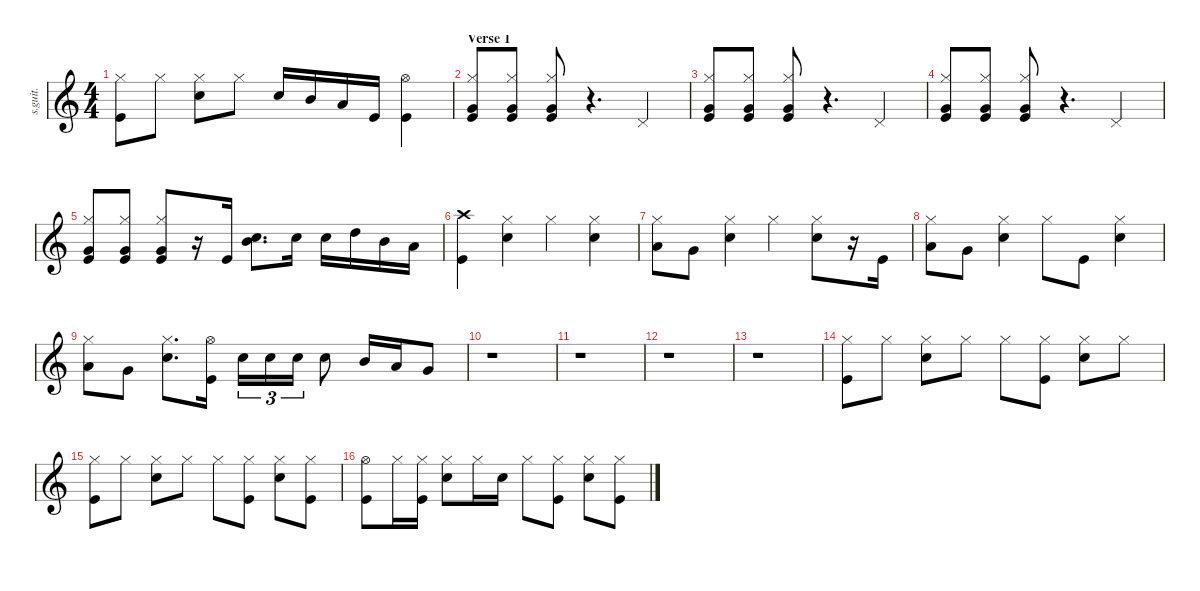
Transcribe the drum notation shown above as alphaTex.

\defaultSystemsLayout 4
\hideDynamics
\bracketExtendMode nobrackets
\track ("Ethan Torchio (Drums)" "s.guit.") {instrument percussion}
\staff {score}
\articulation defaults
\ts (4 4)
\tempo (134 hide)
\clef g2
\ks c
("Kick (hit)" "Hi-Hat (closed)").8{lyrics (0 "") lyrics (1 "") lyrics (2 "") lyrics (3 "") lyrics (4 "") dy ff} "Hi-Hat (closed)".8{lyrics (0 "") lyrics (1 "") lyrics (2 "") lyrics (3 "") lyrics (4 "")} ("Hi-Hat (closed)" "Snare (hit) 2").8{lyrics (0 "") lyrics (1 "") lyrics (2 "") lyrics (3 "") lyrics (4 "")} "Hi-Hat (closed)".8{lyrics (0 "") lyrics (1 "") lyrics (2 "") lyrics (3 "") lyrics (4 "")} "Snare (hit) 2".16{lyrics (0 "") lyrics (1 "") lyrics (2 "") lyrics (3 "") lyrics (4 "")} "Mid Tom (hit)".16{lyrics (0 "") lyrics (1 "") lyrics (2 "") lyrics (3 "") lyrics (4 "")} "Low Tom (hit)".16{lyrics (0 "") lyrics (1 "") lyrics (2 "") lyrics (3 "") lyrics (4 "")} "Kick (hit)".16{lyrics (0 "") lyrics (1 "") lyrics (2 "") lyrics (3 "") lyrics (4 "")} ("Kick (hit)" "Hi-Hat (open)").4{lyrics (0 "") lyrics (1 "") lyrics (2 "") lyrics (3 "") lyrics (4 "")} |
\section ("" "Verse 1")
("Kick (hit)" "Very Low Tom (hit)" "Hi-Hat (closed)").8{lyrics (0 "") lyrics (1 "") lyrics (2 "") lyrics (3 "") lyrics (4 "")} ("Kick (hit)" "Very Low Tom (hit)" "Hi-Hat (closed)").8{lyrics (0 "") lyrics (1 "") lyrics (2 "") lyrics (3 "") lyrics (4 "")} ("Kick (hit)" "Very Low Tom (hit)" "Hi-Hat (closed)").8{lyrics (0 "") lyrics (1 "") lyrics (2 "") lyrics (3 "") lyrics (4 "")} r.4{d} "Pedal Hi-Hat (hit)".4{lyrics (0 "") lyrics (1 "") lyrics (2 "") lyrics (3 "") lyrics (4 "") dy mp} |
("Kick (hit)" "Very Low Tom (hit)" "Hi-Hat (closed)").8{lyrics (0 "") lyrics (1 "") lyrics (2 "") lyrics (3 "") lyrics (4 "") dy ff} ("Kick (hit)" "Very Low Tom (hit)" "Hi-Hat (closed)").8{lyrics (0 "") lyrics (1 "") lyrics (2 "") lyrics (3 "") lyrics (4 "")} ("Kick (hit)" "Very Low Tom (hit)" "Hi-Hat (closed)").8{lyrics (0 "") lyrics (1 "") lyrics (2 "") lyrics (3 "") lyrics (4 "")} r.4{d} "Pedal Hi-Hat (hit)".4{lyrics (0 "") lyrics (1 "") lyrics (2 "") lyrics (3 "") lyrics (4 "") dy mp} |
("Kick (hit)" "Very Low Tom (hit)" "Hi-Hat (closed)").8{lyrics (0 "") lyrics (1 "") lyrics (2 "") lyrics (3 "") lyrics (4 "") dy ff} ("Kick (hit)" "Very Low Tom (hit)" "Hi-Hat (closed)").8{lyrics (0 "") lyrics (1 "") lyrics (2 "") lyrics (3 "") lyrics (4 "")} ("Kick (hit)" "Very Low Tom (hit)" "Hi-Hat (closed)").8{lyrics (0 "") lyrics (1 "") lyrics (2 "") lyrics (3 "") lyrics (4 "")} r.4{d} "Pedal Hi-Hat (hit)".4{lyrics (0 "") lyrics (1 "") lyrics (2 "") lyrics (3 "") lyrics (4 "") dy mp} |
("Kick (hit)" "Very Low Tom (hit)" "Hi-Hat (closed)").8{lyrics (0 "") lyrics (1 "") lyrics (2 "") lyrics (3 "") lyrics (4 "") dy ff} ("Kick (hit)" "Very Low Tom (hit)" "Hi-Hat (closed)").8{lyrics (0 "") lyrics (1 "") lyrics (2 "") lyrics (3 "") lyrics (4 "")} ("Kick (hit)" "Very Low Tom (hit)" "Hi-Hat (closed)").8{lyrics (0 "") lyrics (1 "") lyrics (2 "") lyrics (3 "") lyrics (4 "")} r.16 "Kick (hit)".16{lyrics (0 "") lyrics (1 "") lyrics (2 "") lyrics (3 "") lyrics (4 "")} ("Snare (hit) 2" "Mid Tom (hit)").8{d lyrics (0 "") lyrics (1 "") lyrics (2 "") lyrics (3 "") lyrics (4 "")} "Snare (hit) 2".16{lyrics (0 "") lyrics (1 "") lyrics (2 "") lyrics (3 "") lyrics (4 "")} "Snare (hit) 2".16{lyrics (0 "") lyrics (1 "") lyrics (2 "") lyrics (3 "") lyrics (4 "")} "High Tom (hit)".16{lyrics (0 "") lyrics (1 "") lyrics (2 "") lyrics (3 "") lyrics (4 "")} "Mid Tom (hit)".16{lyrics (0 "") lyrics (1 "") lyrics (2 "") lyrics (3 "") lyrics (4 "")} "Low Tom (hit)".16{lyrics (0 "") lyrics (1 "") lyrics (2 "") lyrics (3 "") lyrics (4 "")} |
("Crash high (hit)" "Kick (hit)").4{lyrics (0 "") lyrics (1 "") lyrics (2 "") lyrics (3 "") lyrics (4 "")} ("Snare (hit) 2" "Hi-Hat (closed)").4{lyrics (0 "") lyrics (1 "") lyrics (2 "") lyrics (3 "") lyrics (4 "")} "Hi-Hat (closed)".4{lyrics (0 "") lyrics (1 "") lyrics (2 "") lyrics (3 "") lyrics (4 "")} ("Hi-Hat (closed)" "Snare (hit) 2").4{lyrics (0 "") lyrics (1 "") lyrics (2 "") lyrics (3 "") lyrics (4 "")} |
("Hi-Hat (closed)" "Low Tom (hit)").8{lyrics (0 "") lyrics (1 "") lyrics (2 "") lyrics (3 "") lyrics (4 "")} "Very Low Tom (hit)".8{lyrics (0 "") lyrics (1 "") lyrics (2 "") lyrics (3 "") lyrics (4 "")} ("Snare (hit) 2" "Hi-Hat (closed)").4{lyrics (0 "") lyrics (1 "") lyrics (2 "") lyrics (3 "") lyrics (4 "")} "Hi-Hat (closed)".4{lyrics (0 "") lyrics (1 "") lyrics (2 "") lyrics (3 "") lyrics (4 "")} ("Hi-Hat (closed)" "Snare (hit) 2").8{lyrics (0 "") lyrics (1 "") lyrics (2 "") lyrics (3 "") lyrics (4 "")} r.16 "Kick (hit)".16{lyrics (0 "") lyrics (1 "") lyrics (2 "") lyrics (3 "") lyrics (4 "")} |
("Hi-Hat (closed)" "Low Tom (hit)").8{lyrics (0 "") lyrics (1 "") lyrics (2 "") lyrics (3 "") lyrics (4 "")} "Very Low Tom (hit)".8{lyrics (0 "") lyrics (1 "") lyrics (2 "") lyrics (3 "") lyrics (4 "")} ("Snare (hit) 2" "Hi-Hat (closed)").4{lyrics (0 "") lyrics (1 "") lyrics (2 "") lyrics (3 "") lyrics (4 "")} "Hi-Hat (closed)".8{lyrics (0 "") lyrics (1 "") lyrics (2 "") lyrics (3 "") lyrics (4 "")} "Kick (hit)".8{lyrics (0 "") lyrics (1 "") lyrics (2 "") lyrics (3 "") lyrics (4 "")} ("Hi-Hat (closed)" "Snare (hit) 2").4{lyrics (0 "") lyrics (1 "") lyrics (2 "") lyrics (3 "") lyrics (4 "")} |
("Hi-Hat (closed)" "Low Tom (hit)").8{lyrics (0 "") lyrics (1 "") lyrics (2 "") lyrics (3 "") lyrics (4 "")} "Very Low Tom (hit)".8{lyrics (0 "") lyrics (1 "") lyrics (2 "") lyrics (3 "") lyrics (4 "")} ("Snare (hit) 2" "Hi-Hat (closed)").8{d lyrics (0 "") lyrics (1 "") lyrics (2 "") lyrics (3 "") lyrics (4 "")} ("Kick (hit)" "Hi-Hat (open)").16{lyrics (0 "") lyrics (1 "") lyrics (2 "") lyrics (3 "") lyrics (4 "")} "Snare (hit) 2".16{tu (3 2) lyrics (0 "") lyrics (1 "") lyrics (2 "") lyrics (3 "") lyrics (4 "") dy p} "Snare (hit) 2".16{tu (3 2) lyrics (0 "") lyrics (1 "") lyrics (2 "") lyrics (3 "") lyrics (4 "") dy mp} "Snare (hit) 2".16{tu (3 2) lyrics (0 "") lyrics (1 "") lyrics (2 "") lyrics (3 "") lyrics (4 "") dy mf} "Snare (hit) 2".8{lyrics (0 "") lyrics (1 "") lyrics (2 "") lyrics (3 "") lyrics (4 "") dy f} "Mid Tom (hit)".16{lyrics (0 "") lyrics (1 "") lyrics (2 "") lyrics (3 "") lyrics (4 "") dy ff} "Low Tom (hit)".16{lyrics (0 "") lyrics (1 "") lyrics (2 "") lyrics (3 "") lyrics (4 "")} "Very Low Tom (hit)".8{lyrics (0 "") lyrics (1 "") lyrics (2 "") lyrics (3 "") lyrics (4 "")} |
r.1 |
r.1 |
r.1 |
r.1 |
("Hi-Hat (closed)" "Kick (hit)").8{lyrics (0 "") lyrics (1 "") lyrics (2 "") lyrics (3 "") lyrics (4 "")} "Hi-Hat (closed)".8{lyrics (0 "") lyrics (1 "") lyrics (2 "") lyrics (3 "") lyrics (4 "")} ("Hi-Hat (closed)" "Snare (hit) 2").8{lyrics (0 "") lyrics (1 "") lyrics (2 "") lyrics (3 "") lyrics (4 "")} "Hi-Hat (closed)".8{lyrics (0 "") lyrics (1 "") lyrics (2 "") lyrics (3 "") lyrics (4 "")} "Hi-Hat (closed)".8{lyrics (0 "") lyrics (1 "") lyrics (2 "") lyrics (3 "") lyrics (4 "")} ("Hi-Hat (closed)" "Kick (hit)").8{lyrics (0 "") lyrics (1 "") lyrics (2 "") lyrics (3 "") lyrics (4 "")} ("Hi-Hat (closed)" "Snare (hit) 2").8{lyrics (0 "") lyrics (1 "") lyrics (2 "") lyrics (3 "") lyrics (4 "")} "Hi-Hat (closed)".8{lyrics (0 "") lyrics (1 "") lyrics (2 "") lyrics (3 "") lyrics (4 "")} |
("Hi-Hat (closed)" "Kick (hit)").8{lyrics (0 "") lyrics (1 "") lyrics (2 "") lyrics (3 "") lyrics (4 "")} "Hi-Hat (closed)".8{lyrics (0 "") lyrics (1 "") lyrics (2 "") lyrics (3 "") lyrics (4 "")} ("Hi-Hat (closed)" "Snare (hit) 2").8{lyrics (0 "") lyrics (1 "") lyrics (2 "") lyrics (3 "") lyrics (4 "")} "Hi-Hat (closed)".8{lyrics (0 "") lyrics (1 "") lyrics (2 "") lyrics (3 "") lyrics (4 "")} "Hi-Hat (closed)".8{lyrics (0 "") lyrics (1 "") lyrics (2 "") lyrics (3 "") lyrics (4 "")} ("Hi-Hat (closed)" "Kick (hit)").8{lyrics (0 "") lyrics (1 "") lyrics (2 "") lyrics (3 "") lyrics (4 "")} ("Hi-Hat (closed)" "Snare (hit) 2").8{lyrics (0 "") lyrics (1 "") lyrics (2 "") lyrics (3 "") lyrics (4 "")} ("Hi-Hat (closed)" "Kick (hit)").8{lyrics (0 "") lyrics (1 "") lyrics (2 "") lyrics (3 "") lyrics (4 "")} |
("Hi-Hat (open)" "Kick (hit)").8{lyrics (0 "") lyrics (1 "") lyrics (2 "") lyrics (3 "") lyrics (4 "")} "Hi-Hat (closed)".16{lyrics (0 "") lyrics (1 "") lyrics (2 "") lyrics (3 "") lyrics (4 "")} ("Hi-Hat (closed)" "Kick (hit)").16{lyrics (0 "") lyrics (1 "") lyrics (2 "") lyrics (3 "") lyrics (4 "")} ("Snare (hit) 2" "Hi-Hat (closed)").8{lyrics (0 "") lyrics (1 "") lyrics (2 "") lyrics (3 "") lyrics (4 "")} "Hi-Hat (closed)".16{lyrics (0 "") lyrics (1 "") lyrics (2 "") lyrics (3 "") lyrics (4 "")} "Snare (hit) 2".16{lyrics (0 "") lyrics (1 "") lyrics (2 "") lyrics (3 "") lyrics (4 "")} "Hi-Hat (closed)".8{lyrics (0 "") lyrics (1 "") lyrics (2 "") lyrics (3 "") lyrics (4 "")} ("Hi-Hat (closed)" "Kick (hit)").8{lyrics (0 "") lyrics (1 "") lyrics (2 "") lyrics (3 "") lyrics (4 "")} ("Hi-Hat (closed)" "Snare (hit) 2").8{lyrics (0 "") lyrics (1 "") lyrics (2 "") lyrics (3 "") lyrics (4 "")} ("Hi-Hat (closed)" "Kick (hit)").8{lyrics (0 "") lyrics (1 "") lyrics (2 "") lyrics (3 "") lyrics (4 "")}
